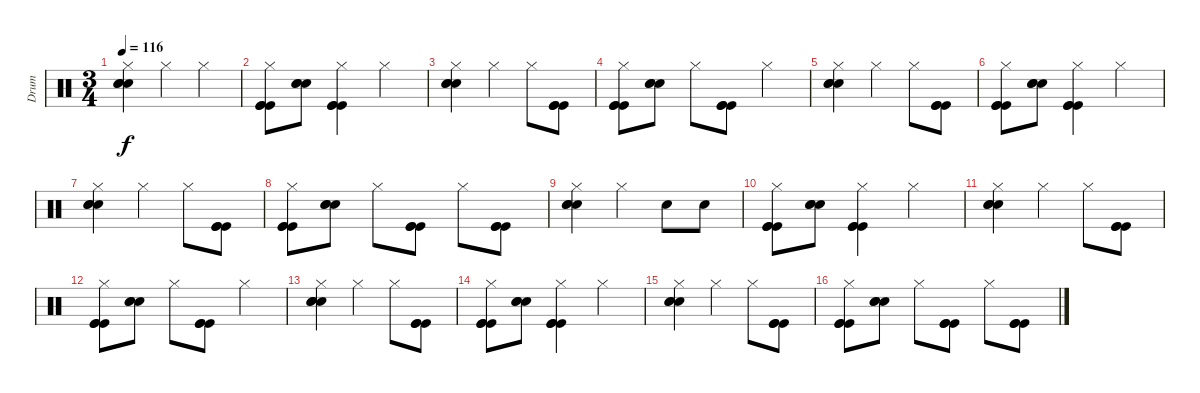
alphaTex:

\track ("Drum" "Drum") {instrument percussion}
\staff {score}
\articulation defaults
\ts (3 4)
\tempo 116
\clef neutral
\ks c
("Hi-Hat (closed)" "Electric Snare (hit)" "Electric Snare (hit)" "Electric Snare (hit)").4{dy f} "Hi-Hat (closed)".4 "Hi-Hat (closed)".4 |
("Hi-Hat (closed)" "Kick (hit)" "Kick (hit)" "Kick (hit)").8 ("Electric Snare (hit)" "Electric Snare (hit)" "Electric Snare (hit)").8 ("Hi-Hat (closed)" "Kick (hit)" "Kick (hit)" "Kick (hit)").4 "Hi-Hat (closed)".4 |
("Hi-Hat (closed)" "Electric Snare (hit)" "Electric Snare (hit)" "Electric Snare (hit)").4 "Hi-Hat (closed)".4 "Hi-Hat (closed)".8 ("Kick (hit)" "Kick (hit)" "Kick (hit)").8 |
("Hi-Hat (closed)" "Kick (hit)" "Kick (hit)" "Kick (hit)").8 ("Electric Snare (hit)" "Electric Snare (hit)" "Electric Snare (hit)").8 "Hi-Hat (closed)".8 ("Kick (hit)" "Kick (hit)" "Kick (hit)").8 "Hi-Hat (closed)".4 |
("Hi-Hat (closed)" "Electric Snare (hit)" "Electric Snare (hit)" "Electric Snare (hit)").4 "Hi-Hat (closed)".4 "Hi-Hat (closed)".8 ("Kick (hit)" "Kick (hit)" "Kick (hit)").8 |
("Hi-Hat (closed)" "Kick (hit)" "Kick (hit)" "Kick (hit)").8 ("Electric Snare (hit)" "Electric Snare (hit)" "Electric Snare (hit)").8 ("Hi-Hat (closed)" "Kick (hit)" "Kick (hit)" "Kick (hit)").4 "Hi-Hat (closed)".4 |
("Hi-Hat (closed)" "Electric Snare (hit)" "Electric Snare (hit)" "Electric Snare (hit)").4 "Hi-Hat (closed)".4 "Hi-Hat (closed)".8 ("Kick (hit)" "Kick (hit)" "Kick (hit)").8 |
("Hi-Hat (closed)" "Kick (hit)" "Kick (hit)" "Kick (hit)").8 ("Electric Snare (hit)" "Electric Snare (hit)" "Electric Snare (hit)").8 "Hi-Hat (closed)".8 ("Kick (hit)" "Kick (hit)" "Kick (hit)").8 "Hi-Hat (closed)".8 ("Kick (hit)" "Kick (hit)" "Kick (hit)").8 |
("Hi-Hat (closed)" "Electric Snare (hit)" "Electric Snare (hit)" "Electric Snare (hit)").4 "Hi-Hat (closed)".4 "Electric Snare (hit)".8 "Electric Snare (hit)".8 |
("Hi-Hat (closed)" "Kick (hit)" "Kick (hit)" "Kick (hit)").8 ("Electric Snare (hit)" "Electric Snare (hit)" "Electric Snare (hit)").8 ("Hi-Hat (closed)" "Kick (hit)" "Kick (hit)" "Kick (hit)").4 "Hi-Hat (closed)".4 |
("Hi-Hat (closed)" "Electric Snare (hit)" "Electric Snare (hit)" "Electric Snare (hit)").4 "Hi-Hat (closed)".4 "Hi-Hat (closed)".8 ("Kick (hit)" "Kick (hit)" "Kick (hit)").8 |
("Hi-Hat (closed)" "Kick (hit)" "Kick (hit)" "Kick (hit)").8 ("Electric Snare (hit)" "Electric Snare (hit)" "Electric Snare (hit)").8 "Hi-Hat (closed)".8 ("Kick (hit)" "Kick (hit)" "Kick (hit)").8 "Hi-Hat (closed)".4 |
("Hi-Hat (closed)" "Electric Snare (hit)" "Electric Snare (hit)" "Electric Snare (hit)").4 "Hi-Hat (closed)".4 "Hi-Hat (closed)".8 ("Kick (hit)" "Kick (hit)" "Kick (hit)").8 |
("Hi-Hat (closed)" "Kick (hit)" "Kick (hit)" "Kick (hit)").8 ("Electric Snare (hit)" "Electric Snare (hit)" "Electric Snare (hit)").8 ("Hi-Hat (closed)" "Kick (hit)" "Kick (hit)" "Kick (hit)").4 "Hi-Hat (closed)".4 |
("Hi-Hat (closed)" "Electric Snare (hit)" "Electric Snare (hit)" "Electric Snare (hit)").4 "Hi-Hat (closed)".4 "Hi-Hat (closed)".8 ("Kick (hit)" "Kick (hit)" "Kick (hit)").8 |
("Hi-Hat (closed)" "Kick (hit)" "Kick (hit)" "Kick (hit)").8 ("Electric Snare (hit)" "Electric Snare (hit)" "Electric Snare (hit)").8 "Hi-Hat (closed)".8 ("Kick (hit)" "Kick (hit)" "Kick (hit)").8 "Hi-Hat (closed)".8 ("Kick (hit)" "Kick (hit)" "Kick (hit)").8
